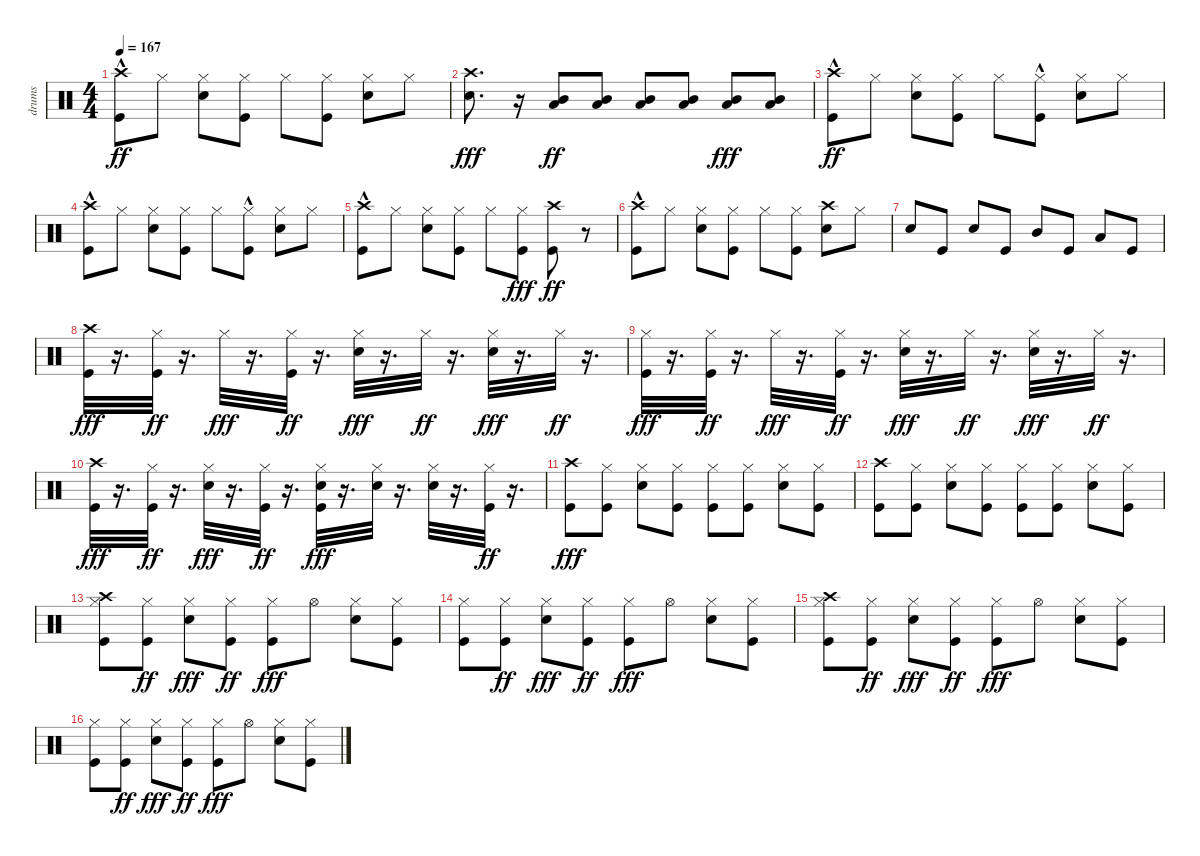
\track ("drums" "drums") {instrument percussion}
\staff {score}
\articulation defaults
\ts (4 4)
\tempo 167
\clef neutral
\ks c
("Crash high (hit)" "Kick (hit)"{hac}).8{dy ff} "Hi-Hat (closed)".8 ("Snare (hit) 2" "Hi-Hat (closed)").8 ("Kick (hit)" "Hi-Hat (closed)").8 "Hi-Hat (closed)".8 ("Kick (hit)" "Hi-Hat (closed)").8 ("Snare (hit) 2" "Hi-Hat (closed)").8 "Hi-Hat (closed)".8 |
("Snare (hit) 2" "Crash high (hit)").8{d dy fff} r.16 ("Low Tom (hit)" "Mid Tom (hit)").8{dy ff} ("Low Tom (hit)" "Mid Tom (hit)").8 ("Low Tom (hit)" "Mid Tom (hit)").8 ("Low Tom (hit)" "Mid Tom (hit)").8 ("Low Tom (hit)" "Mid Tom (hit)").8{dy fff} ("Mid Tom (hit)" "Low Tom (hit)").8 |
("Crash high (hit)" "Kick (hit)"{hac}).8{dy ff} "Hi-Hat (closed)".8 ("Snare (hit) 2" "Hi-Hat (closed)").8 ("Kick (hit)" "Hi-Hat (closed)").8 "Hi-Hat (closed)".8 ("Kick (hit)"{hac} "Hi-Hat (closed)").8 ("Snare (hit) 2" "Hi-Hat (closed)").8 "Hi-Hat (closed)".8 |
("Crash high (hit)" "Kick (hit)"{hac}).8 "Hi-Hat (closed)".8 ("Snare (hit) 2" "Hi-Hat (closed)").8 ("Kick (hit)" "Hi-Hat (closed)").8 "Hi-Hat (closed)".8 ("Kick (hit)"{hac} "Hi-Hat (closed)").8 ("Snare (hit) 2" "Hi-Hat (closed)").8 "Hi-Hat (closed)".8 |
("Kick (hit)"{hac} "Crash high (hit)"{hac}).8 "Hi-Hat (closed)".8 ("Snare (hit) 2" "Hi-Hat (closed)").8 ("Kick (hit)" "Hi-Hat (closed)").8 "Hi-Hat (closed)".8 ("Hi-Hat (closed)" "Kick (hit)").8{dy fff} ("Kick (hit)" "Crash high (hit)").8{dy ff} r.8 |
("Kick (hit)"{hac} "Crash high (hit)"{hac}).8 "Hi-Hat (closed)".8 ("Snare (hit) 2" "Hi-Hat (closed)").8 ("Kick (hit)" "Hi-Hat (closed)").8 "Hi-Hat (closed)".8 ("Kick (hit)" "Hi-Hat (closed)").8 ("Snare (hit) 2" "Crash high (hit)").8 "Hi-Hat (closed)".8 |
"Snare (hit) 2".8 "Kick (hit)".8 "Snare (hit) 2".8 "Kick (hit)".8 "Mid Tom (hit)".8 "Kick (hit)".8 "Low Tom (hit)".8 "Kick (hit)".8 |
("Kick (hit)" "Crash high (hit)").32{dy fff} r.16{d} ("Kick (hit)" "Hi-Hat (closed)").32{dy ff} r.16{d} "Hi-Hat (closed)".32{dy fff} r.16{d} ("Kick (hit)" "Hi-Hat (closed)").32{dy ff} r.16{d} ("Snare (hit) 2" "Hi-Hat (closed)").32{dy fff} r.16{d} "Hi-Hat (closed)".32{dy ff} r.16{d} ("Snare (hit) 2" "Hi-Hat (closed)").32{dy fff} r.16{d} "Hi-Hat (closed)".32{dy ff} r.16{d} |
("Kick (hit)" "Hi-Hat (closed)").32{dy fff} r.16{d} ("Kick (hit)" "Hi-Hat (closed)").32{dy ff} r.16{d} "Hi-Hat (closed)".32{dy fff} r.16{d} ("Kick (hit)" "Hi-Hat (closed)").32{dy ff} r.16{d} ("Snare (hit) 2" "Hi-Hat (closed)").32{dy fff} r.16{d} "Hi-Hat (closed)".32{dy ff} r.16{d} ("Snare (hit) 2" "Hi-Hat (closed)").32{dy fff} r.16{d} "Hi-Hat (closed)".32{dy ff} r.16{d} |
("Kick (hit)" "Crash high (hit)").32{dy fff} r.16{d} ("Kick (hit)" "Hi-Hat (closed)").32{dy ff} r.16{d} ("Snare (hit) 2" "Hi-Hat (closed)").32{dy fff} r.16{d} ("Kick (hit)" "Hi-Hat (closed)").32{dy ff} r.16{d} ("Kick (hit)" "Hi-Hat (closed)" "Snare (hit) 2").32{dy fff} r.16{d} ("Hi-Hat (closed)" "Snare (hit) 2").32 r.16{d} ("Snare (hit) 2" "Hi-Hat (closed)").32 r.16{d} ("Kick (hit)" "Hi-Hat (closed)").32{dy ff} r.16{d} |
("Kick (hit)" "Crash high (hit)").8{dy fff} ("Kick (hit)" "Hi-Hat (closed)").8 ("Snare (hit) 2" "Hi-Hat (closed)").8 ("Kick (hit)" "Hi-Hat (closed)").8 ("Kick (hit)" "Hi-Hat (closed)").8 ("Kick (hit)" "Hi-Hat (closed)").8 ("Snare (hit) 2" "Hi-Hat (closed)").8 ("Hi-Hat (closed)" "Kick (hit)").8 |
("Kick (hit)" "Crash high (hit)").8 ("Kick (hit)" "Hi-Hat (closed)").8 ("Snare (hit) 2" "Hi-Hat (closed)").8 ("Kick (hit)" "Hi-Hat (closed)").8 ("Kick (hit)" "Hi-Hat (closed)").8 ("Kick (hit)" "Hi-Hat (closed)").8 ("Snare (hit) 2" "Hi-Hat (closed)").8 ("Hi-Hat (closed)" "Kick (hit)").8 |
("Kick (hit)" "Hi-Hat (closed)" "Crash high (hit)").8 ("Kick (hit)" "Hi-Hat (closed)").8{dy ff} ("Snare (hit) 2" "Hi-Hat (closed)").8{dy fff} ("Kick (hit)" "Hi-Hat (closed)").8{dy ff} ("Kick (hit)" "Hi-Hat (closed)").8{dy fff} "Hi-Hat (open)".8 ("Snare (hit) 2" "Hi-Hat (closed)").8 ("Hi-Hat (closed)" "Kick (hit)").8 |
("Kick (hit)" "Hi-Hat (closed)").8 ("Kick (hit)" "Hi-Hat (closed)").8{dy ff} ("Snare (hit) 2" "Hi-Hat (closed)").8{dy fff} ("Kick (hit)" "Hi-Hat (closed)").8{dy ff} ("Kick (hit)" "Hi-Hat (closed)").8{dy fff} "Hi-Hat (open)".8 ("Snare (hit) 2" "Hi-Hat (closed)").8 ("Hi-Hat (closed)" "Kick (hit)").8 |
("Kick (hit)" "Hi-Hat (closed)" "Crash high (hit)").8 ("Kick (hit)" "Hi-Hat (closed)").8{dy ff} ("Snare (hit) 2" "Hi-Hat (closed)").8{dy fff} ("Kick (hit)" "Hi-Hat (closed)").8{dy ff} ("Kick (hit)" "Hi-Hat (closed)").8{dy fff} "Hi-Hat (open)".8 ("Snare (hit) 2" "Hi-Hat (closed)").8 ("Hi-Hat (closed)" "Kick (hit)").8 |
("Kick (hit)" "Hi-Hat (closed)").8 ("Kick (hit)" "Hi-Hat (closed)").8{dy ff} ("Snare (hit) 2" "Hi-Hat (closed)").8{dy fff} ("Kick (hit)" "Hi-Hat (closed)").8{dy ff} ("Kick (hit)" "Hi-Hat (closed)").8{dy fff} "Hi-Hat (open)".8 ("Snare (hit) 2" "Hi-Hat (closed)").8 ("Hi-Hat (closed)" "Kick (hit)").8
